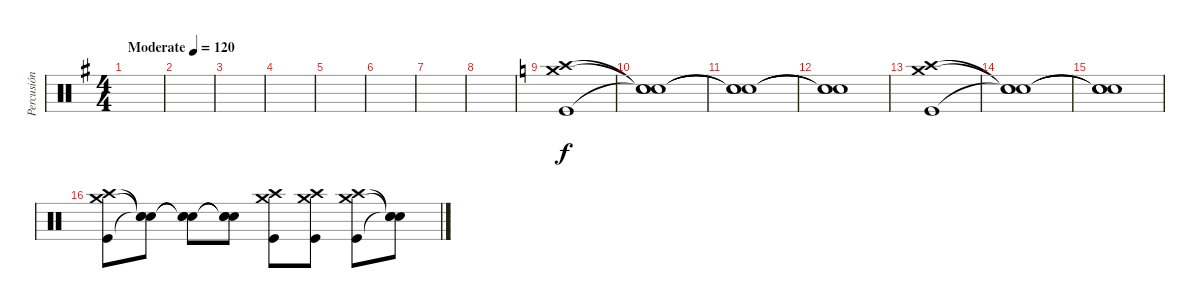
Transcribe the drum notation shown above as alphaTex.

\track ("Percusión" "Percusión") {instrument percussion}
\staff {score}
\articulation defaults
\ts (4 4)
\tempo (120 "Moderate")
\clef neutral
\ks g
|
|
|
|
|
|
|
|
\ks c
("Crash high (hit)" "Crash medium (hit)" "Kick (hit)").1 |
("Snare (hit)"{t} "Snare (hit)"{t} "Snare (hit)"{t}).1 |
("Snare (hit)"{t} "Snare (hit)"{t} "Snare (hit)"{t}).1 |
("Snare (hit)"{t} "Snare (hit)"{t} "Snare (hit)"{t}).1 |
("Crash high (hit)" "Crash medium (hit)" "Kick (hit)").1 |
("Snare (hit)"{t} "Snare (hit)"{t} "Snare (hit)"{t}).1 |
("Snare (hit)"{t} "Snare (hit)"{t} "Snare (hit)"{t}).1 |
("Crash high (hit)" "Crash medium (hit)" "Kick (hit)").8 ("Snare (hit)"{t} "Snare (hit)"{t} "Snare (hit)"{t}).8 ("Snare (hit)"{t} "Snare (hit)"{t} "Snare (hit)"{t}).8 ("Snare (hit)"{t} "Snare (hit)"{t} "Snare (hit)"{t}).8 ("Crash high (hit)" "Crash medium (hit)" "Kick (hit)").8 ("Crash high (hit)" "Crash medium (hit)" "Kick (hit)").8 ("Crash high (hit)" "Crash medium (hit)" "Kick (hit)").8 ("Snare (hit)"{t} "Snare (hit)"{t} "Snare (hit)"{t}).8
